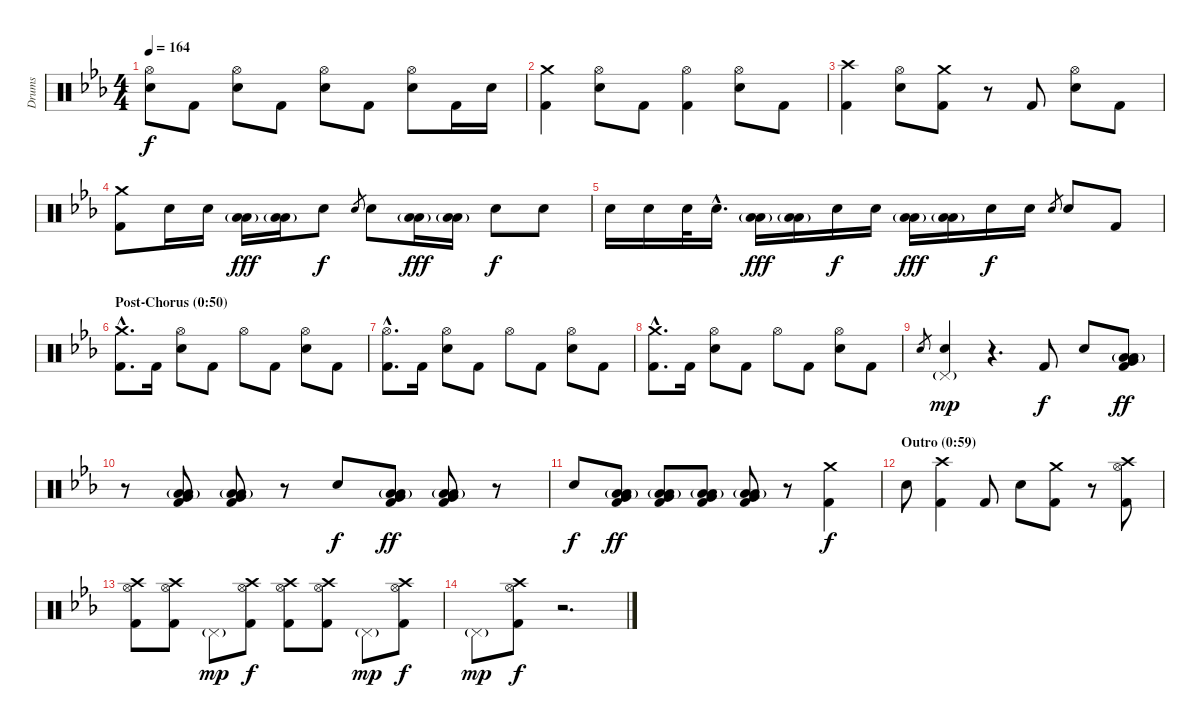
\track ("Drums" "Drums") {instrument percussion}
\staff {score}
\articulation defaults
\ts (4 4)
\tempo 164
\clef neutral
\ks eb
("Hi-Hat (open)" "Electric Snare (hit)").8{dy f} "Kick (hit) 2".8 ("Hi-Hat (open)" "Electric Snare (hit)").8 "Kick (hit) 2".8 ("Hi-Hat (open)" "Electric Snare (hit)").8 "Kick (hit) 2".8 ("Hi-Hat (open)" "Electric Snare (hit)").8 "Kick (hit) 2".16 "Electric Snare (hit)".16 |
("Crash medium (hit)" "Kick (hit) 2").4 ("Hi-Hat (open)" "Electric Snare (hit)").8 "Kick (hit) 2".8 ("Hi-Hat (open)" "Kick (hit) 2").4 ("Hi-Hat (open)" "Electric Snare (hit)").8 "Kick (hit) 2".8 |
("Crash high (hit)" "Kick (hit) 2").4 ("Hi-Hat (open)" "Electric Snare (hit)").8 ("Crash medium (hit)" "Kick (hit) 2").8 r.8 "Kick (hit) 2".8 ("Hi-Hat (open)" "Electric Snare (hit)").8 "Kick (hit) 2".8 |
("Crash medium (hit)" "Kick (hit) 2").8 "Electric Snare (hit)".16 "Electric Snare (hit)".16 ("Low Tom (hit)" "Low Floor Tom (hit)"{g}).16{dy fff} ("Low Tom (hit)" "Low Floor Tom (hit)"{g}).16 "Electric Snare (hit)".8{dy f} "Electric Snare (hit)".8{gr} "Electric Snare (hit)".8 ("Low Tom (hit)" "Low Floor Tom (hit)"{g}).16{dy fff} ("Low Tom (hit)" "Low Floor Tom (hit)"{g}).16 "Electric Snare (hit)".8{dy f} "Electric Snare (hit)".8 |
"Electric Snare (hit)".16 "Electric Snare (hit)".16 "Electric Snare (hit)".32 "Electric Snare (hit)"{hac}.16{d} ("Low Tom (hit)" "Low Floor Tom (hit)"{g}).16{dy fff} ("Low Tom (hit)" "Low Floor Tom (hit)"{g}).16 "Electric Snare (hit)".16{dy f} "Electric Snare (hit)".16 ("Low Tom (hit)" "Low Floor Tom (hit)"{g}).16{dy fff} ("Low Tom (hit)" "Low Floor Tom (hit)"{g}).16 "Electric Snare (hit)".16{dy f} "Electric Snare (hit)".16 "Electric Snare (hit)".8{gr} "Electric Snare (hit)".8 "Kick (hit) 2".8 |
\section ("" "Post-Chorus (0:50)")
("Crash medium (hit)"{hac} "Kick (hit) 2"{hac}).8{d} "Kick (hit) 2".16 ("Hi-Hat (open)" "Electric Snare (hit)").8 "Kick (hit) 2".8 "Hi-Hat (open)".8 "Kick (hit) 2".8 ("Hi-Hat (open)" "Electric Snare (hit)").8 "Kick (hit) 2".8 |
("Hi-Hat (open)"{hac} "Kick (hit) 2"{hac}).8{d} "Kick (hit) 2".16 ("Hi-Hat (open)" "Electric Snare (hit)").8 "Kick (hit) 2".8 "Hi-Hat (open)".8 "Kick (hit) 2".8 ("Hi-Hat (open)" "Electric Snare (hit)").8 "Kick (hit) 2".8 |
("Crash medium (hit)"{hac} "Kick (hit) 2"{hac}).8{d} "Kick (hit) 2".16 ("Hi-Hat (open)" "Electric Snare (hit)").8 "Kick (hit) 2".8 "Hi-Hat (open)".8 "Kick (hit) 2".8 ("Hi-Hat (open)" "Electric Snare (hit)").8 "Kick (hit) 2".8 |
"Electric Snare (hit)".8{gr} ("Pedal Hi-Hat (hit)"{g} "Electric Snare (hit)").4{dy mp} r.4{d} "Kick (hit) 2".8{dy f} "Electric Snare (hit)".8 ("Low Tom (hit)" "Low Floor Tom (hit)"{g} "Very Low Tom (hit)" "Kick (hit) 2").8{dy ff} |
r.8 ("Low Tom (hit)" "Low Floor Tom (hit)"{g} "Very Low Tom (hit)" "Kick (hit) 2").8 ("Low Tom (hit)" "Low Floor Tom (hit)"{g} "Very Low Tom (hit)" "Kick (hit) 2").8 r.8 "Electric Snare (hit)".8{dy f} ("Low Tom (hit)" "Low Floor Tom (hit)"{g} "Very Low Tom (hit)" "Kick (hit) 2").8{dy ff} ("Low Tom (hit)" "Low Floor Tom (hit)"{g} "Very Low Tom (hit)" "Kick (hit) 2").8 r.8 |
"Electric Snare (hit)".8{dy f} ("Low Tom (hit)" "Low Floor Tom (hit)"{g} "Very Low Tom (hit)" "Kick (hit) 2").8{dy ff} ("Low Tom (hit)" "Low Floor Tom (hit)"{g} "Very Low Tom (hit)" "Kick (hit) 2").8 ("Low Tom (hit)" "Low Floor Tom (hit)"{g} "Very Low Tom (hit)" "Kick (hit) 2").8 ("Low Tom (hit)" "Low Floor Tom (hit)"{g} "Very Low Tom (hit)" "Kick (hit) 2").8 r.8 ("Crash medium (hit)" "Kick (hit) 2").4{dy f} |
\section ("" "Outro (0:59)")
"Electric Snare (hit)".8 ("Crash high (hit)" "Kick (hit) 2").4 "Kick (hit) 2".8 "Electric Snare (hit)".8 ("Crash medium (hit)" "Kick (hit) 2").8 r.8 ("Crash high (hit)" "Hi-Hat (open)" "Kick (hit) 2").8 |
("Crash high (hit)" "Hi-Hat (open)" "Kick (hit) 2").8 ("Crash high (hit)" "Hi-Hat (open)" "Kick (hit) 2").8 "Pedal Hi-Hat (hit)"{g}.8{dy mp volume 0} ("Crash high (hit)" "Hi-Hat (open)" "Kick (hit) 2").8{dy f volume 16} ("Crash high (hit)" "Hi-Hat (open)" "Kick (hit) 2").8 ("Crash high (hit)" "Hi-Hat (open)" "Kick (hit) 2").8 "Pedal Hi-Hat (hit)"{g}.8{dy mp volume 0} ("Crash high (hit)" "Hi-Hat (open)" "Kick (hit) 2").8{dy f volume 16} |
"Pedal Hi-Hat (hit)"{g}.8{dy mp volume 0} ("Crash high (hit)" "Hi-Hat (open)" "Kick (hit) 2").8{dy f volume 16} r.2{d volume 0}
